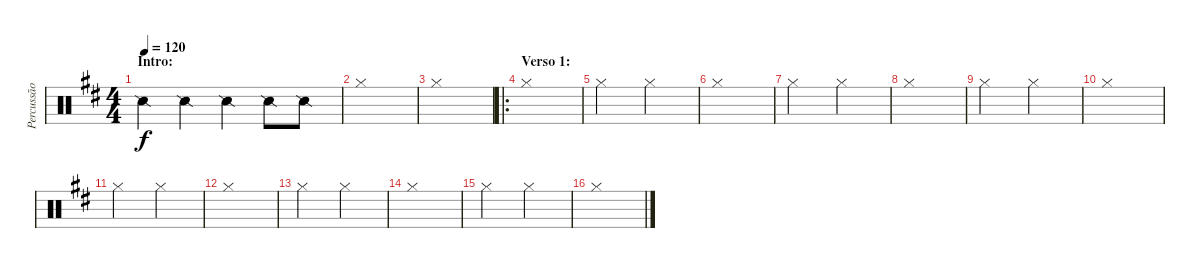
\track ("Percussão" "Percussão") {instrument percussion}
\staff {score}
\articulation defaults
\ts (4 4)
\section ("" "Intro:")
\tempo 120
\clef neutral
\ks d "Snare (side stick) 2".4{dy f} "Snare (side stick) 2".4 "Snare (side stick) 2".4 "Snare (side stick) 2".8 "Snare (side stick) 2".8
|
"Hi-Hat (closed)".1 |
"Hi-Hat (closed)".1 |
\ro
\section ("" "Verso 1:")
"Hi-Hat (closed)".1 |
"Hi-Hat (closed)".2 "Hi-Hat (closed)".2 |
"Hi-Hat (closed)".1 |
"Hi-Hat (closed)".2 "Hi-Hat (closed)".2 |
"Hi-Hat (closed)".1 |
"Hi-Hat (closed)".2 "Hi-Hat (closed)".2 |
"Hi-Hat (closed)".1 |
"Hi-Hat (closed)".2 "Hi-Hat (closed)".2 |
"Hi-Hat (closed)".1 |
"Hi-Hat (closed)".2 "Hi-Hat (closed)".2 |
"Hi-Hat (closed)".1 |
"Hi-Hat (closed)".2 "Hi-Hat (closed)".2 |
"Hi-Hat (closed)".1
